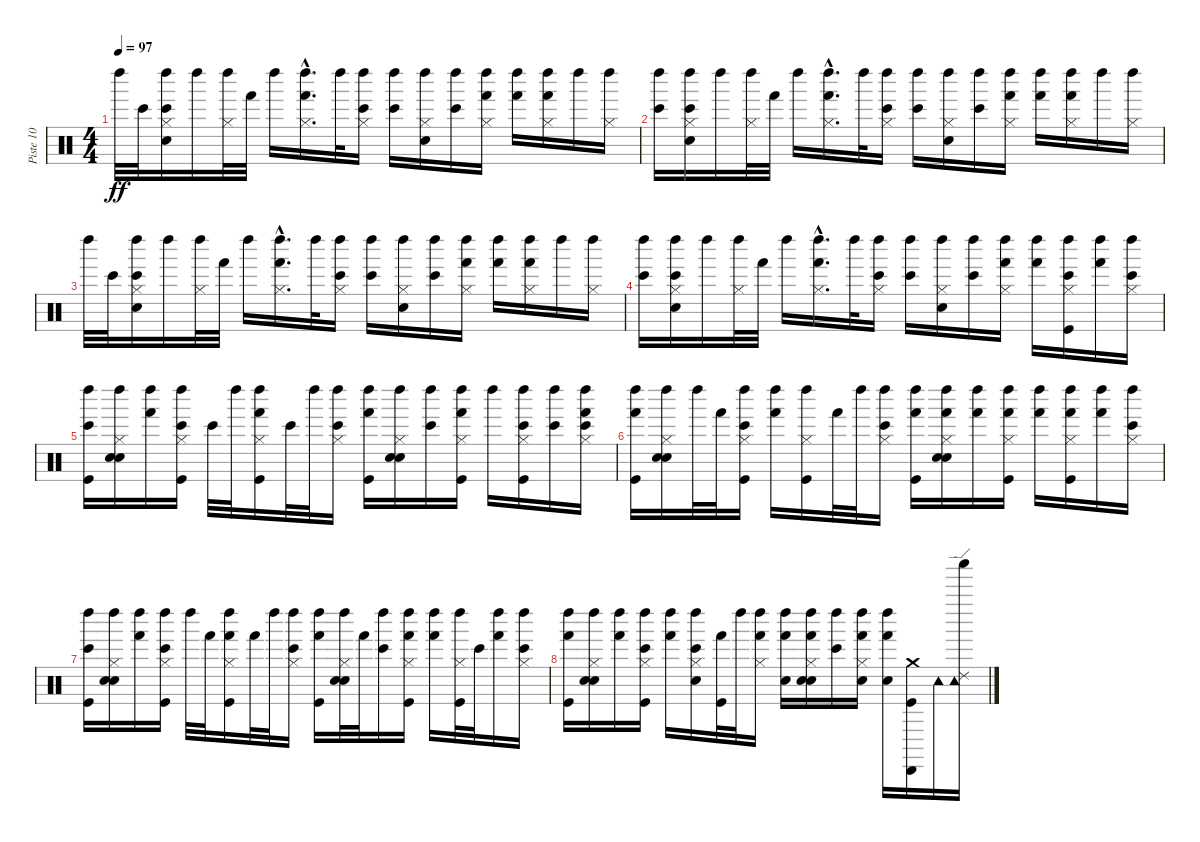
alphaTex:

\track ("Piste 10" "Piste 10") {instrument percussion}
\staff {score}
\articulation defaults
\ts (4 4)
\tempo 97
\clef neutral
\ks c "Left Maraca (hit)".32{dy ff} "Bongo High (hit)".32
("Bongo High (hit)" "Left Maraca (hit)" "Hand Clap (hit)" "Hi-Hat (closed)").16 "Left Maraca (hit)".16 ("Left Maraca (hit)" "Hi-Hat (closed)").32 "Hand (hit)".32 "Left Maraca (hit)".16 ("Hand (hit)"{hac} "Left Maraca (hit)" "Hi-Hat (closed)").16{d} "Left Maraca (hit)".32 ("Bongo High (hit)" "Left Maraca (hit)" "Hi-Hat (closed)").16 ("Bongo High (hit)" "Left Maraca (hit)").16 ("Left Maraca (hit)" "Hand Clap (hit)" "Hi-Hat (closed)").16 ("Bongo High (hit)" "Left Maraca (hit)").16 ("Hand (hit)" "Left Maraca (hit)" "Hi-Hat (closed)").16 ("Hand (hit)" "Left Maraca (hit)").16 ("Hand (hit)" "Left Maraca (hit)" "Hi-Hat (closed)").16 "Left Maraca (hit)".16 ("Left Maraca (hit)" "Hi-Hat (closed)").16 |
("Bongo High (hit)" "Left Maraca (hit)").16 ("Bongo High (hit)" "Left Maraca (hit)" "Hand Clap (hit)" "Hi-Hat (closed)").16 "Left Maraca (hit)".16 ("Left Maraca (hit)" "Hi-Hat (closed)").32 "Hand (hit)".32 "Left Maraca (hit)".16 ("Hand (hit)"{hac} "Left Maraca (hit)" "Hi-Hat (closed)").16{d} "Left Maraca (hit)".32 ("Bongo High (hit)" "Left Maraca (hit)" "Hi-Hat (closed)").16 ("Bongo High (hit)" "Left Maraca (hit)").16 ("Left Maraca (hit)" "Hand Clap (hit)" "Hi-Hat (closed)").16 ("Bongo High (hit)" "Left Maraca (hit)").16 ("Hand (hit)" "Left Maraca (hit)" "Hi-Hat (closed)").16 ("Hand (hit)" "Left Maraca (hit)").16 ("Hand (hit)" "Left Maraca (hit)" "Hi-Hat (closed)").16 "Left Maraca (hit)".16 ("Left Maraca (hit)" "Hi-Hat (closed)").16 |
"Left Maraca (hit)".32 "Bongo High (hit)".32 ("Bongo High (hit)" "Left Maraca (hit)" "Hand Clap (hit)" "Hi-Hat (closed)").16 "Left Maraca (hit)".16 ("Left Maraca (hit)" "Hi-Hat (closed)").32 "Hand (hit)".32 "Left Maraca (hit)".16 ("Hand (hit)"{hac} "Left Maraca (hit)" "Hi-Hat (closed)").16{d} "Left Maraca (hit)".32 ("Bongo High (hit)" "Left Maraca (hit)" "Hi-Hat (closed)").16 ("Bongo High (hit)" "Left Maraca (hit)").16 ("Left Maraca (hit)" "Hand Clap (hit)" "Hi-Hat (closed)").16 ("Bongo High (hit)" "Left Maraca (hit)").16 ("Hand (hit)" "Left Maraca (hit)" "Hi-Hat (closed)").16 ("Hand (hit)" "Left Maraca (hit)").16 ("Hand (hit)" "Left Maraca (hit)" "Hi-Hat (closed)").16 "Left Maraca (hit)".16 ("Left Maraca (hit)" "Hi-Hat (closed)").16 |
("Bongo High (hit)" "Left Maraca (hit)").16 ("Bongo High (hit)" "Left Maraca (hit)" "Hand Clap (hit)" "Hi-Hat (closed)").16 "Left Maraca (hit)".16 ("Left Maraca (hit)" "Hi-Hat (closed)").32 "Hand (hit)".32 "Left Maraca (hit)".16 ("Hand (hit)"{hac} "Left Maraca (hit)" "Hi-Hat (closed)").16{d} "Left Maraca (hit)".32 ("Bongo High (hit)" "Left Maraca (hit)" "Hi-Hat (closed)").16 ("Bongo High (hit)" "Left Maraca (hit)").16 ("Left Maraca (hit)" "Hand Clap (hit)" "Hi-Hat (closed)").16 ("Bongo High (hit)" "Left Maraca (hit)").16 ("Hand (hit)" "Left Maraca (hit)" "Hi-Hat (closed)").16 ("Hand (hit)" "Left Maraca (hit)").16 ("Bongo High (hit)" "Left Maraca (hit)" "Kick (hit)" "Hi-Hat (closed)").16 ("Hand (hit)" "Left Maraca (hit)").16 ("Bongo High (hit)" "Left Maraca (hit)" "Hi-Hat (closed)").16 |
("Bongo High (hit)" "Left Maraca (hit)" "Kick (hit)").16 ("Left Maraca (hit)" "Hand Clap (hit)" "Electric Snare (hit)" "Hi-Hat (closed)").16 ("Hand (hit)" "Left Maraca (hit)").16 ("Bongo High (hit)" "Left Maraca (hit)" "Kick (hit)" "Hi-Hat (closed)").16 "Bongo High (hit)".32 "Left Maraca (hit)".32 ("Hand (hit)" "Left Maraca (hit)" "Kick (hit)" "Hi-Hat (closed)").16 "Bongo High (hit)".32 "Left Maraca (hit)".32 ("Bongo High (hit)" "Left Maraca (hit)" "Hi-Hat (closed)").16 ("Hand (hit)" "Left Maraca (hit)" "Kick (hit)").16 ("Left Maraca (hit)" "Hand Clap (hit)" "Electric Snare (hit)" "Hi-Hat (closed)").16 ("Bongo High (hit)" "Left Maraca (hit)").16 ("Hand (hit)" "Left Maraca (hit)" "Kick (hit)" "Hi-Hat (closed)").16 "Left Maraca (hit)".16 ("Bongo High (hit)" "Left Maraca (hit)" "Kick (hit)" "Hi-Hat (closed)").16 ("Bongo High (hit)" "Left Maraca (hit)").16 ("Bongo High (hit)" "Hand (hit)" "Left Maraca (hit)" "Hi-Hat (closed)").16 |
("Hand (hit)" "Left Maraca (hit)" "Kick (hit)").16 ("Left Maraca (hit)" "Hand Clap (hit)" "Electric Snare (hit)" "Hi-Hat (closed)").16 "Left Maraca (hit)".32 "Hand (hit)".32 ("Bongo High (hit)" "Left Maraca (hit)" "Kick (hit)" "Hi-Hat (closed)").16 ("Hand (hit)" "Left Maraca (hit)").16 ("Left Maraca (hit)" "Kick (hit)" "Hi-Hat (closed)").16 "Hand (hit)".32 "Left Maraca (hit)".32 ("Bongo High (hit)" "Left Maraca (hit)" "Hi-Hat (closed)").16 ("Hand (hit)" "Left Maraca (hit)" "Kick (hit)").16 ("Hand (hit)" "Left Maraca (hit)" "Hand Clap (hit)" "Electric Snare (hit)" "Hi-Hat (closed)").16 ("Hand (hit)" "Left Maraca (hit)").16 ("Hand (hit)" "Left Maraca (hit)" "Kick (hit)" "Hi-Hat (closed)").16 ("Hand (hit)" "Left Maraca (hit)").16 ("Hand (hit)" "Left Maraca (hit)" "Kick (hit)" "Hi-Hat (closed)").16 ("Hand (hit)" "Left Maraca (hit)").16 ("Bongo High (hit)" "Left Maraca (hit)" "Hi-Hat (closed)").16 |
("Bongo High (hit)" "Left Maraca (hit)" "Kick (hit)").16 ("Left Maraca (hit)" "Hand Clap (hit)" "Electric Snare (hit)" "Hi-Hat (closed)").16 ("Hand (hit)" "Left Maraca (hit)").16 ("Bongo High (hit)" "Left Maraca (hit)" "Kick (hit)" "Hi-Hat (closed)").16 "Left Maraca (hit)".32 "Hand (hit)".32 ("Hand (hit)" "Left Maraca (hit)" "Kick (hit)" "Hi-Hat (closed)").16 "Hand (hit)".32 "Left Maraca (hit)".32 ("Bongo High (hit)" "Left Maraca (hit)" "Hi-Hat (closed)").16 ("Hand (hit)" "Left Maraca (hit)" "Kick (hit)").16 ("Left Maraca (hit)" "Hand Clap (hit)" "Electric Snare (hit)" "Hi-Hat (closed)").32 "Hand (hit)".32 ("Bongo High (hit)" "Left Maraca (hit)").16 ("Hand (hit)" "Left Maraca (hit)" "Kick (hit)" "Hi-Hat (closed)").16 ("Hand (hit)" "Left Maraca (hit)").16 ("Left Maraca (hit)" "Kick (hit)" "Hi-Hat (closed)").32 "Bongo High (hit)".32 ("Hand (hit)" "Left Maraca (hit)").16 ("Bongo High (hit)" "Left Maraca (hit)" "Hi-Hat (closed)").16 |
("Hand (hit)" "Left Maraca (hit)" "Kick (hit)").16 ("Left Maraca (hit)" "Hand Clap (hit)" "Electric Snare (hit)" "Hi-Hat (closed)").16 ("Hand (hit)" "Left Maraca (hit)").16 ("Bongo High (hit)" "Left Maraca (hit)" "Kick (hit)" "Hi-Hat (closed)").16 ("Hand (hit)" "Left Maraca (hit)").16 ("Bongo High (hit)" "Left Maraca (hit)" "Electric Snare (hit)" "Hi-Hat (closed)").16 ("Hand (hit)" "Kick (hit)").32 "Left Maraca (hit)".32 ("Hand (hit)" "Left Maraca (hit)" "Hi-Hat (closed)").16 ("Hand (hit)" "Left Maraca (hit)" "Electric Snare (hit)").16 ("Hand (hit)" "Left Maraca (hit)" "Hand Clap (hit)" "Electric Snare (hit)" "Hi-Hat (closed)").16 ("Bongo High (hit)" "Left Maraca (hit)").16 ("Hand (hit)" "Left Maraca (hit)" "Electric Snare (hit)" "Hi-Hat (closed)").16 ("Hand (hit)" "Left Maraca (hit)" "Electric Snare (hit)").16 ("Cabasa (hit)" "Kick (hit)" "Crash medium (hit)").16 "Tambourine (hit)".16 ("Shaker (hit)" "Tambourine (hit)" "Ride (edge) 2").16
